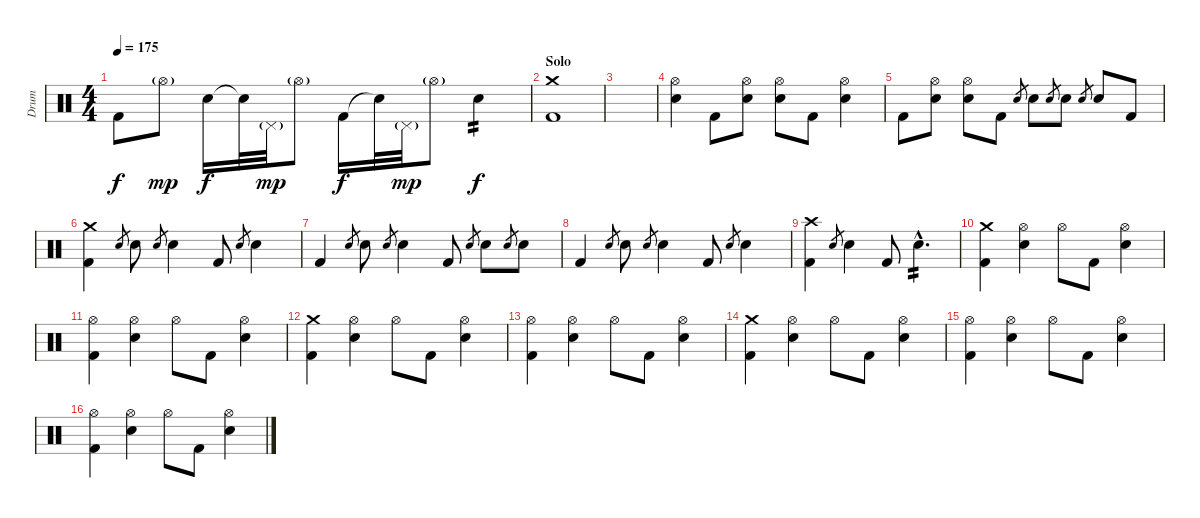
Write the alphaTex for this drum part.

\track ("Drum" "Drum") {instrument percussion}
\staff {score}
\articulation defaults
\ts (4 4)
\tempo 175
\clef neutral
\ks c "Kick (hit) 2".8{dy f} "Hi-Hat (open)"{g}.8{dy mp} "Electric Snare (hit)".16{dy f} "Snare (hit)"{t}.32 "Pedal Hi-Hat (hit)"{g}.32{dy mp} "Hi-Hat (open)"{g}.8 "Kick (hit) 2".16{dy f} "Snare (hit)"{t}.32 "Pedal Hi-Hat (hit)"{g}.32{dy mp} "Hi-Hat (open)"{g}.8 "Electric Snare (hit)".4{tp 2 dy f}
|
\section ("" "Solo")
("Kick (hit) 2" "Crash medium (hit)").1 |
|
("Hi-Hat (open)" "Electric Snare (hit)").4 "Kick (hit) 2".8 ("Hi-Hat (open)" "Electric Snare (hit)").8 ("Hi-Hat (open)" "Electric Snare (hit)").8 "Kick (hit) 2".8 ("Hi-Hat (open)" "Electric Snare (hit)").4 |
"Kick (hit) 2".8 ("Hi-Hat (open)" "Electric Snare (hit)").8 ("Hi-Hat (open)" "Electric Snare (hit)").8 "Kick (hit) 2".8 "Electric Snare (hit)".8{gr} "Electric Snare (hit)".8 "Electric Snare (hit)".8{gr} "Electric Snare (hit)".8 "Electric Snare (hit)".8{gr} "Electric Snare (hit)".8 "Kick (hit) 2".8 |
("Kick (hit) 2" "Crash medium (hit)").4 "Electric Snare (hit)".8{gr} "Electric Snare (hit)".8 "Electric Snare (hit)".8{gr} "Electric Snare (hit)".4 "Kick (hit) 2".8 "Electric Snare (hit)".8{gr} "Electric Snare (hit)".4 |
"Kick (hit) 2".4 "Electric Snare (hit)".8{gr} "Electric Snare (hit)".8 "Electric Snare (hit)".8{gr} "Electric Snare (hit)".4 "Kick (hit) 2".8 "Electric Snare (hit)".8{gr} "Electric Snare (hit)".8 "Electric Snare (hit)".8{gr} "Electric Snare (hit)".8 |
"Kick (hit) 2".4 "Electric Snare (hit)".8{gr} "Electric Snare (hit)".8 "Electric Snare (hit)".8{gr} "Electric Snare (hit)".4 "Kick (hit) 2".8 "Electric Snare (hit)".8{gr} "Electric Snare (hit)".4 |
("Kick (hit) 2" "Crash high (hit)").4 "Electric Snare (hit)".8{gr} "Electric Snare (hit)".4 "Kick (hit) 2".8 "Electric Snare (hit)"{hac}.4{d tp 2} |
("Kick (hit) 2" "Crash medium (hit)").4 ("Hi-Hat (open)" "Electric Snare (hit)").4 "Hi-Hat (open)".8 "Kick (hit) 2".8 ("Hi-Hat (open)" "Electric Snare (hit)").4 |
("Hi-Hat (open)" "Kick (hit) 2").4 ("Hi-Hat (open)" "Electric Snare (hit)").4 "Hi-Hat (open)".8 "Kick (hit) 2".8 ("Hi-Hat (open)" "Electric Snare (hit)").4 |
("Kick (hit) 2" "Crash medium (hit)").4 ("Hi-Hat (open)" "Electric Snare (hit)").4 "Hi-Hat (open)".8 "Kick (hit) 2".8 ("Hi-Hat (open)" "Electric Snare (hit)").4 |
("Hi-Hat (open)" "Kick (hit) 2").4 ("Hi-Hat (open)" "Electric Snare (hit)").4 "Hi-Hat (open)".8 "Kick (hit) 2".8 ("Hi-Hat (open)" "Electric Snare (hit)").4 |
("Kick (hit) 2" "Crash medium (hit)").4 ("Hi-Hat (open)" "Electric Snare (hit)").4 "Hi-Hat (open)".8 "Kick (hit) 2".8 ("Hi-Hat (open)" "Electric Snare (hit)").4 |
("Hi-Hat (open)" "Kick (hit) 2").4 ("Hi-Hat (open)" "Electric Snare (hit)").4 "Hi-Hat (open)".8 "Kick (hit) 2".8 ("Hi-Hat (open)" "Electric Snare (hit)").4 |
("Hi-Hat (open)" "Kick (hit) 2").4 ("Hi-Hat (open)" "Electric Snare (hit)").4 "Hi-Hat (open)".8 "Kick (hit) 2".8 ("Hi-Hat (open)" "Electric Snare (hit)").4
